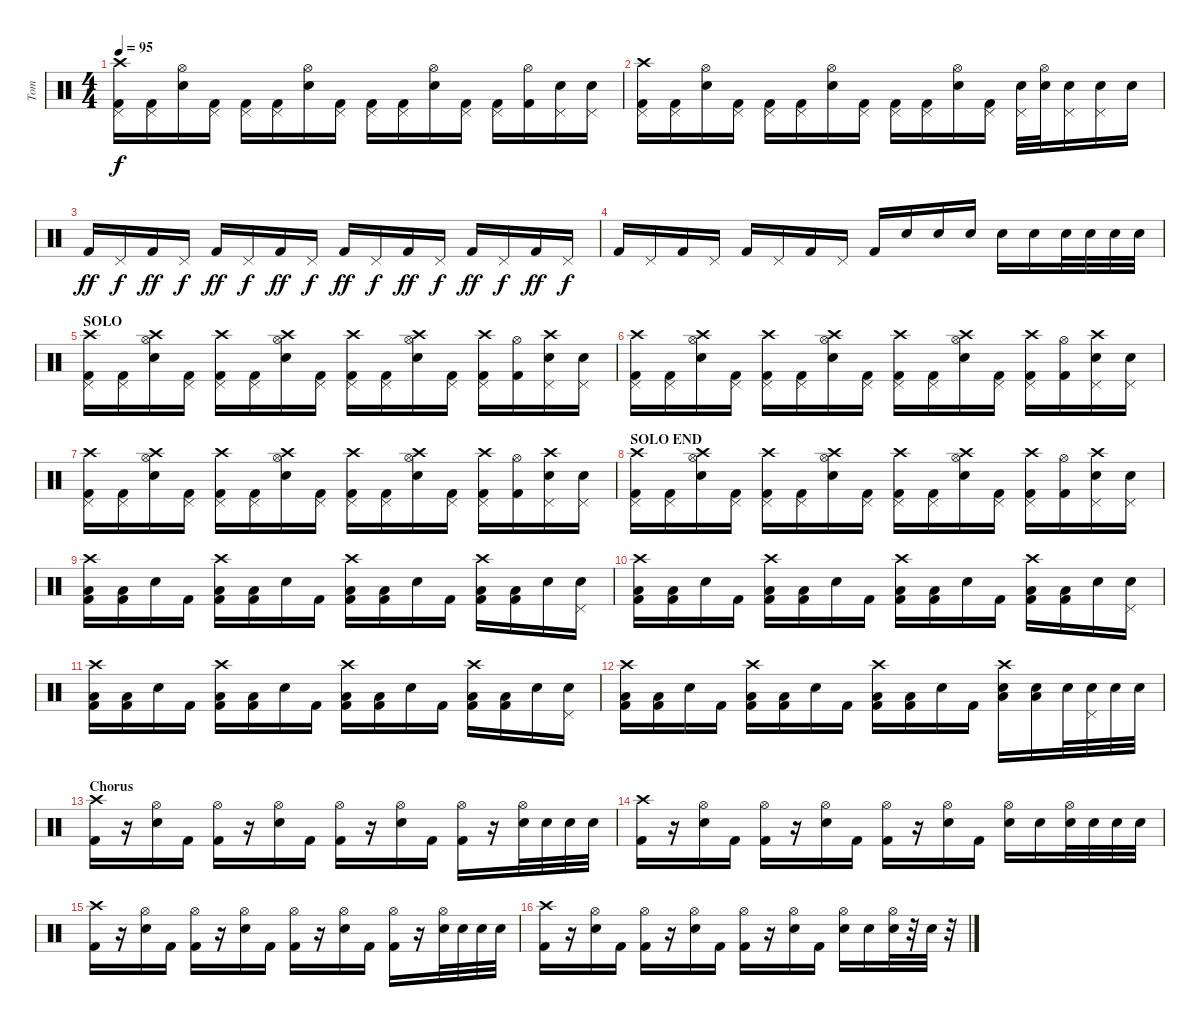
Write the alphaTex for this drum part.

\track ("Tom" "Tom") {instrument percussion}
\staff {score}
\articulation defaults
\ts (4 4)
\tempo 95
\clef neutral
\ks c
("Crash high (hit)" "Pedal Hi-Hat (hit)" "Kick (hit) 2").16{dy f} ("Pedal Hi-Hat (hit)" "Kick (hit) 2").16 ("Hi-Hat (open)" "Electric Snare (hit)").16 ("Pedal Hi-Hat (hit)" "Kick (hit) 2").16 ("Pedal Hi-Hat (hit)" "Kick (hit) 2").16 ("Pedal Hi-Hat (hit)" "Kick (hit) 2").16 ("Hi-Hat (open)" "Electric Snare (hit)").16 ("Pedal Hi-Hat (hit)" "Kick (hit) 2").16 ("Pedal Hi-Hat (hit)" "Kick (hit) 2").16 ("Pedal Hi-Hat (hit)" "Kick (hit) 2").16 ("Hi-Hat (open)" "Electric Snare (hit)").16 ("Pedal Hi-Hat (hit)" "Kick (hit) 2").16 ("Pedal Hi-Hat (hit)" "Kick (hit) 2").16 ("Hi-Hat (open)" "Kick (hit) 2").16 ("Pedal Hi-Hat (hit)" "Electric Snare (hit)").16 ("Pedal Hi-Hat (hit)" "Electric Snare (hit)").16 |
("Crash high (hit)" "Pedal Hi-Hat (hit)" "Kick (hit) 2").16 ("Pedal Hi-Hat (hit)" "Kick (hit) 2").16 ("Hi-Hat (open)" "Electric Snare (hit)").16 ("Pedal Hi-Hat (hit)" "Kick (hit) 2").16 ("Pedal Hi-Hat (hit)" "Kick (hit) 2").16 ("Pedal Hi-Hat (hit)" "Kick (hit) 2").16 ("Hi-Hat (open)" "Electric Snare (hit)").16 ("Pedal Hi-Hat (hit)" "Kick (hit) 2").16 ("Pedal Hi-Hat (hit)" "Kick (hit) 2").16 ("Pedal Hi-Hat (hit)" "Kick (hit) 2").16 ("Hi-Hat (open)" "Electric Snare (hit)").16 ("Pedal Hi-Hat (hit)" "Kick (hit) 2").16 ("Pedal Hi-Hat (hit)" "Electric Snare (hit)").32 ("Hi-Hat (open)" "Electric Snare (hit)").32 ("Pedal Hi-Hat (hit)" "Electric Snare (hit)").16 ("Pedal Hi-Hat (hit)" "Electric Snare (hit)").16 "Electric Snare (hit)".16 |
"Kick (hit) 2".16{dy ff} "Pedal Hi-Hat (hit)".16{dy f} "Kick (hit) 2".16{dy ff} "Pedal Hi-Hat (hit)".16{dy f} "Kick (hit) 2".16{dy ff} "Pedal Hi-Hat (hit)".16{dy f} "Kick (hit) 2".16{dy ff} "Pedal Hi-Hat (hit)".16{dy f} "Kick (hit) 2".16{dy ff} "Pedal Hi-Hat (hit)".16{dy f} "Kick (hit) 2".16{dy ff} "Pedal Hi-Hat (hit)".16{dy f} "Kick (hit) 2".16{dy ff} "Pedal Hi-Hat (hit)".16{dy f} "Kick (hit) 2".16{dy ff} "Pedal Hi-Hat (hit)".16{dy f} |
"Kick (hit) 2".16 "Pedal Hi-Hat (hit)".16 "Kick (hit) 2".16 "Pedal Hi-Hat (hit)".16 "Kick (hit) 2".16 "Pedal Hi-Hat (hit)".16 "Kick (hit) 2".16 "Pedal Hi-Hat (hit)".16 "Kick (hit) 2".16 "Electric Snare (hit)".16 "Electric Snare (hit)".16 "Electric Snare (hit)".16 "Electric Snare (hit)".16 "Electric Snare (hit)".16 "Electric Snare (hit)".32 "Electric Snare (hit)".32 "Electric Snare (hit)".32 "Electric Snare (hit)".32 |
\section ("" "SOLO")
("Crash high (hit)" "Pedal Hi-Hat (hit)" "Kick (hit) 2").16 ("Pedal Hi-Hat (hit)" "Kick (hit) 2").16 ("Crash high (hit)" "Hi-Hat (open)" "Electric Snare (hit)").16 ("Pedal Hi-Hat (hit)" "Kick (hit) 2").16 ("Crash high (hit)" "Pedal Hi-Hat (hit)" "Kick (hit) 2").16 ("Pedal Hi-Hat (hit)" "Kick (hit) 2").16 ("Crash high (hit)" "Hi-Hat (open)" "Electric Snare (hit)").16 ("Pedal Hi-Hat (hit)" "Kick (hit) 2").16 ("Crash high (hit)" "Pedal Hi-Hat (hit)" "Kick (hit) 2").16 ("Pedal Hi-Hat (hit)" "Kick (hit) 2").16 ("Crash high (hit)" "Hi-Hat (open)" "Electric Snare (hit)").16 ("Pedal Hi-Hat (hit)" "Kick (hit) 2").16 ("Crash high (hit)" "Pedal Hi-Hat (hit)" "Kick (hit) 2").16 ("Hi-Hat (open)" "Kick (hit) 2").16 ("Crash high (hit)" "Pedal Hi-Hat (hit)" "Electric Snare (hit)").16 ("Pedal Hi-Hat (hit)" "Electric Snare (hit)").16 |
("Crash high (hit)" "Pedal Hi-Hat (hit)" "Kick (hit) 2").16 ("Pedal Hi-Hat (hit)" "Kick (hit) 2").16 ("Crash high (hit)" "Hi-Hat (open)" "Electric Snare (hit)").16 ("Pedal Hi-Hat (hit)" "Kick (hit) 2").16 ("Crash high (hit)" "Pedal Hi-Hat (hit)" "Kick (hit) 2").16 ("Pedal Hi-Hat (hit)" "Kick (hit) 2").16 ("Crash high (hit)" "Hi-Hat (open)" "Electric Snare (hit)").16 ("Pedal Hi-Hat (hit)" "Kick (hit) 2").16 ("Crash high (hit)" "Pedal Hi-Hat (hit)" "Kick (hit) 2").16 ("Pedal Hi-Hat (hit)" "Kick (hit) 2").16 ("Crash high (hit)" "Hi-Hat (open)" "Electric Snare (hit)").16 ("Pedal Hi-Hat (hit)" "Kick (hit) 2").16 ("Crash high (hit)" "Pedal Hi-Hat (hit)" "Kick (hit) 2").16 ("Hi-Hat (open)" "Kick (hit) 2").16 ("Crash high (hit)" "Pedal Hi-Hat (hit)" "Electric Snare (hit)").16 ("Pedal Hi-Hat (hit)" "Electric Snare (hit)").16 |
("Crash high (hit)" "Pedal Hi-Hat (hit)" "Kick (hit) 2").16 ("Pedal Hi-Hat (hit)" "Kick (hit) 2").16 ("Crash high (hit)" "Hi-Hat (open)" "Electric Snare (hit)").16 ("Pedal Hi-Hat (hit)" "Kick (hit) 2").16 ("Crash high (hit)" "Pedal Hi-Hat (hit)" "Kick (hit) 2").16 ("Pedal Hi-Hat (hit)" "Kick (hit) 2").16 ("Crash high (hit)" "Hi-Hat (open)" "Electric Snare (hit)").16 ("Pedal Hi-Hat (hit)" "Kick (hit) 2").16 ("Crash high (hit)" "Pedal Hi-Hat (hit)" "Kick (hit) 2").16 ("Pedal Hi-Hat (hit)" "Kick (hit) 2").16 ("Crash high (hit)" "Hi-Hat (open)" "Electric Snare (hit)").16 ("Pedal Hi-Hat (hit)" "Kick (hit) 2").16 ("Crash high (hit)" "Pedal Hi-Hat (hit)" "Kick (hit) 2").16 ("Hi-Hat (open)" "Kick (hit) 2").16 ("Crash high (hit)" "Pedal Hi-Hat (hit)" "Electric Snare (hit)").16 ("Pedal Hi-Hat (hit)" "Electric Snare (hit)").16 |
\section ("" "SOLO END")
("Crash high (hit)" "Pedal Hi-Hat (hit)" "Kick (hit) 2").16 ("Pedal Hi-Hat (hit)" "Kick (hit) 2").16 ("Crash high (hit)" "Hi-Hat (open)" "Electric Snare (hit)").16 ("Pedal Hi-Hat (hit)" "Kick (hit) 2").16 ("Crash high (hit)" "Pedal Hi-Hat (hit)" "Kick (hit) 2").16 ("Pedal Hi-Hat (hit)" "Kick (hit) 2").16 ("Crash high (hit)" "Hi-Hat (open)" "Electric Snare (hit)").16 ("Pedal Hi-Hat (hit)" "Kick (hit) 2").16 ("Crash high (hit)" "Pedal Hi-Hat (hit)" "Kick (hit) 2").16 ("Pedal Hi-Hat (hit)" "Kick (hit) 2").16 ("Crash high (hit)" "Hi-Hat (open)" "Electric Snare (hit)").16 ("Pedal Hi-Hat (hit)" "Kick (hit) 2").16 ("Crash high (hit)" "Pedal Hi-Hat (hit)" "Kick (hit) 2").16 ("Hi-Hat (open)" "Kick (hit) 2").16 ("Crash high (hit)" "Pedal Hi-Hat (hit)" "Electric Snare (hit)").16 ("Pedal Hi-Hat (hit)" "Electric Snare (hit)").16 |
("Crash high (hit)" "Low Tom (hit)" "Kick (hit) 2").16 ("Low Tom (hit)" "Kick (hit) 2").16 "Electric Snare (hit)".16 "Kick (hit) 2".16 ("Crash high (hit)" "Low Tom (hit)" "Kick (hit) 2").16 ("Low Tom (hit)" "Kick (hit) 2").16 "Electric Snare (hit)".16 "Kick (hit) 2".16 ("Crash high (hit)" "Low Tom (hit)" "Kick (hit) 2").16 ("Low Tom (hit)" "Kick (hit) 2").16 "Electric Snare (hit)".16 "Kick (hit) 2".16 ("Crash high (hit)" "Low Tom (hit)" "Kick (hit) 2").16 ("Low Tom (hit)" "Kick (hit) 2").16 "Electric Snare (hit)".16 ("Pedal Hi-Hat (hit)" "Electric Snare (hit)").16 |
("Crash high (hit)" "Low Tom (hit)" "Kick (hit) 2").16 ("Low Tom (hit)" "Kick (hit) 2").16 "Electric Snare (hit)".16 "Kick (hit) 2".16 ("Crash high (hit)" "Low Tom (hit)" "Kick (hit) 2").16 ("Low Tom (hit)" "Kick (hit) 2").16 "Electric Snare (hit)".16 "Kick (hit) 2".16 ("Crash high (hit)" "Low Tom (hit)" "Kick (hit) 2").16 ("Low Tom (hit)" "Kick (hit) 2").16 "Electric Snare (hit)".16 "Kick (hit) 2".16 ("Crash high (hit)" "Low Tom (hit)" "Kick (hit) 2").16 ("Low Tom (hit)" "Kick (hit) 2").16 "Electric Snare (hit)".16 ("Pedal Hi-Hat (hit)" "Electric Snare (hit)").16 |
("Crash high (hit)" "Low Tom (hit)" "Kick (hit) 2").16 ("Low Tom (hit)" "Kick (hit) 2").16 "Electric Snare (hit)".16 "Kick (hit) 2".16 ("Crash high (hit)" "Low Tom (hit)" "Kick (hit) 2").16 ("Low Tom (hit)" "Kick (hit) 2").16 "Electric Snare (hit)".16 "Kick (hit) 2".16 ("Crash high (hit)" "Low Tom (hit)" "Kick (hit) 2").16 ("Low Tom (hit)" "Kick (hit) 2").16 "Electric Snare (hit)".16 "Kick (hit) 2".16 ("Crash high (hit)" "Low Tom (hit)" "Kick (hit) 2").16 ("Low Tom (hit)" "Kick (hit) 2").16 "Electric Snare (hit)".16 ("Pedal Hi-Hat (hit)" "Electric Snare (hit)").16 |
("Crash high (hit)" "Low Tom (hit)" "Kick (hit) 2").16 ("Low Tom (hit)" "Kick (hit) 2").16 "Electric Snare (hit)".16 "Kick (hit) 2".16 ("Crash high (hit)" "Low Tom (hit)" "Kick (hit) 2").16 ("Low Tom (hit)" "Kick (hit) 2").16 "Electric Snare (hit)".16 "Kick (hit) 2".16 ("Crash high (hit)" "Low Tom (hit)" "Kick (hit) 2").16 ("Low Tom (hit)" "Kick (hit) 2").16 "Electric Snare (hit)".16 "Kick (hit) 2".16 ("Crash high (hit)" "Low Tom (hit)" "Electric Snare (hit)").16 ("Low Tom (hit)" "Electric Snare (hit)").16 "Electric Snare (hit)".32 ("Pedal Hi-Hat (hit)" "Electric Snare (hit)").32 "Electric Snare (hit)".32 "Electric Snare (hit)".32 |
\section ("" "Chorus")
("Crash high (hit)" "Kick (hit) 2").16 r.16 ("Hi-Hat (open)" "Electric Snare (hit)").16 "Kick (hit) 2".16 ("Hi-Hat (open)" "Kick (hit) 2").16 r.16 ("Hi-Hat (open)" "Electric Snare (hit)").16 "Kick (hit) 2".16 ("Hi-Hat (open)" "Kick (hit) 2").16 r.16 ("Hi-Hat (open)" "Electric Snare (hit)").16 "Kick (hit) 2".16 ("Hi-Hat (open)" "Kick (hit) 2").16 r.16 ("Hi-Hat (open)" "Electric Snare (hit)").32 "Electric Snare (hit)".32 "Electric Snare (hit)".32 "Electric Snare (hit)".32 |
("Crash high (hit)" "Kick (hit) 2").16 r.16 ("Hi-Hat (open)" "Electric Snare (hit)").16 "Kick (hit) 2".16 ("Hi-Hat (open)" "Kick (hit) 2").16 r.16 ("Hi-Hat (open)" "Electric Snare (hit)").16 "Kick (hit) 2".16 ("Hi-Hat (open)" "Kick (hit) 2").16 r.16 ("Hi-Hat (open)" "Electric Snare (hit)").16 "Kick (hit) 2".16 ("Hi-Hat (open)" "Electric Snare (hit)").16 "Electric Snare (hit)".16 ("Hi-Hat (open)" "Electric Snare (hit)").32 "Electric Snare (hit)".32 "Electric Snare (hit)".32 "Electric Snare (hit)".32 |
("Crash high (hit)" "Kick (hit) 2").16 r.16 ("Hi-Hat (open)" "Electric Snare (hit)").16 "Kick (hit) 2".16 ("Hi-Hat (open)" "Kick (hit) 2").16 r.16 ("Hi-Hat (open)" "Electric Snare (hit)").16 "Kick (hit) 2".16 ("Hi-Hat (open)" "Kick (hit) 2").16 r.16 ("Hi-Hat (open)" "Electric Snare (hit)").16 "Kick (hit) 2".16 ("Hi-Hat (open)" "Kick (hit) 2").16 r.16 ("Hi-Hat (open)" "Electric Snare (hit)").32 "Electric Snare (hit)".32 "Electric Snare (hit)".32 "Electric Snare (hit)".32 |
("Crash high (hit)" "Kick (hit) 2").16 r.16 ("Hi-Hat (open)" "Electric Snare (hit)").16 "Kick (hit) 2".16 ("Hi-Hat (open)" "Kick (hit) 2").16 r.16 ("Hi-Hat (open)" "Electric Snare (hit)").16 "Kick (hit) 2".16 ("Hi-Hat (open)" "Kick (hit) 2").16 r.16 ("Hi-Hat (open)" "Electric Snare (hit)").16 "Kick (hit) 2".16 ("Hi-Hat (open)" "Electric Snare (hit)").16 "Electric Snare (hit)".16 ("Hi-Hat (open)" "Electric Snare (hit)").32 r.32 "Electric Snare (hit)".32 r.32
